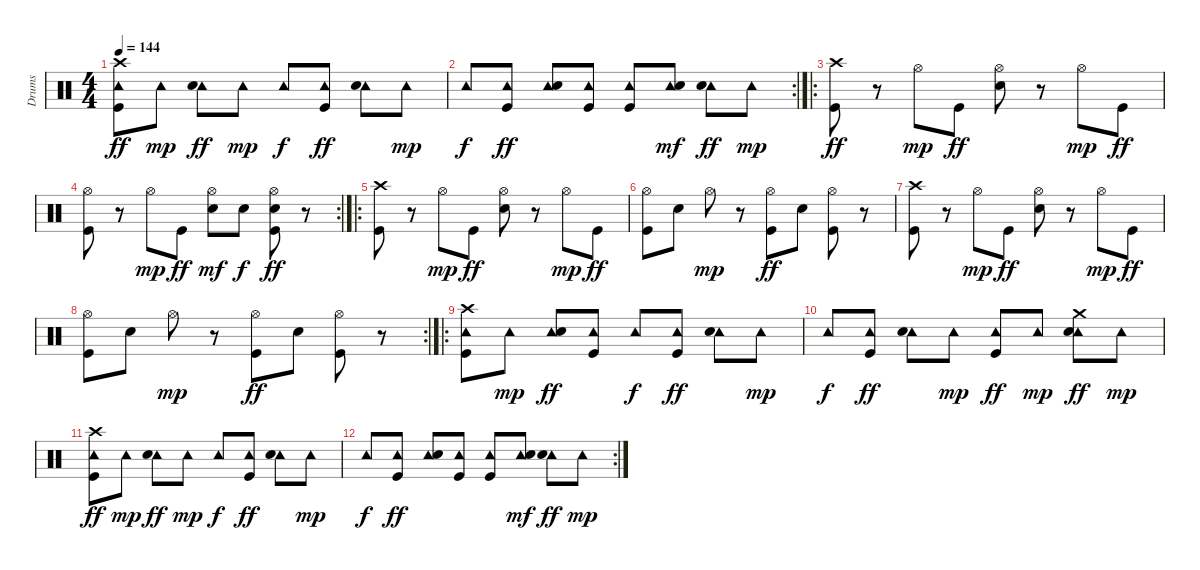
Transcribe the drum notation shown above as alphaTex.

\track ("Drums" "Drums") {instrument percussion}
\staff {score}
\articulation defaults
\ts (4 4)
\tempo 144
\clef neutral
\ks c
("Crash high (hit)" "Tambourine (hit)" "Kick (hit)").8{dy ff} "Tambourine (hit)".8{dy mp} ("Tambourine (hit)" "Snare (hit) 2").8{dy ff} "Tambourine (hit)".8{dy mp} "Tambourine (hit)".8{dy f} ("Tambourine (hit)" "Kick (hit)").8{dy ff} ("Tambourine (hit)" "Snare (hit) 2").8 "Tambourine (hit)".8{dy mp} |
\rc 2 "Tambourine (hit)".8{dy f}
("Tambourine (hit)" "Kick (hit)").8{dy ff} ("Tambourine (hit)" "Snare (hit) 2").8 ("Tambourine (hit)" "Kick (hit)").8 ("Tambourine (hit)" "Kick (hit)").8 ("Tambourine (hit)" "Snare (hit) 2").8{dy mf} ("Tambourine (hit)" "Snare (hit) 2").8{dy ff} "Tambourine (hit)".8{dy mp} |
\ro
("Crash high (hit)" "Kick (hit)").8{dy ff} r.8 "Hi-Hat (open)".8{dy mp} "Kick (hit)".8{dy ff} ("Hi-Hat (open)" "Snare (hit) 2").8 r.8 "Hi-Hat (open)".8{dy mp} "Kick (hit)".8{dy ff} |
\rc 2
("Hi-Hat (open)" "Kick (hit)").8 r.8 "Hi-Hat (open)".8{dy mp} "Kick (hit)".8{dy ff} ("Hi-Hat (open)" "Snare (hit) 2").8{dy mf} "Snare (hit) 2".8{dy f} ("Hi-Hat (open)" "Snare (hit) 2" "Kick (hit)").8{dy ff} r.8 |
\ro
("Crash high (hit)" "Kick (hit)").8 r.8 "Hi-Hat (open)".8{dy mp} "Kick (hit)".8{dy ff} ("Hi-Hat (open)" "Snare (hit) 2").8 r.8 "Hi-Hat (open)".8{dy mp} "Kick (hit)".8{dy ff} |
("Hi-Hat (open)" "Kick (hit)").8 "Snare (hit) 2".8 "Hi-Hat (open)".8{dy mp} r.8 ("Hi-Hat (open)" "Kick (hit)").8{dy ff} "Snare (hit) 2".8 ("Hi-Hat (open)" "Kick (hit)").8 r.8 |
("Crash high (hit)" "Kick (hit)").8 r.8 "Hi-Hat (open)".8{dy mp} "Kick (hit)".8{dy ff} ("Hi-Hat (open)" "Snare (hit) 2").8 r.8 "Hi-Hat (open)".8{dy mp} "Kick (hit)".8{dy ff} |
\rc 2
("Hi-Hat (open)" "Kick (hit)").8 "Snare (hit) 2".8 "Hi-Hat (open)".8{dy mp} r.8 ("Hi-Hat (open)" "Kick (hit)").8{dy ff} "Snare (hit) 2".8 ("Hi-Hat (open)" "Kick (hit)").8 r.8 |
\ro
("Crash high (hit)" "Tambourine (hit)" "Kick (hit)").8 "Tambourine (hit)".8{dy mp} ("Tambourine (hit)" "Snare (hit) 2").8{dy ff} ("Tambourine (hit)" "Kick (hit)").8 "Tambourine (hit)".8{dy f} ("Tambourine (hit)" "Kick (hit)").8{dy ff} ("Tambourine (hit)" "Snare (hit) 2").8 "Tambourine (hit)".8{dy mp} |
"Tambourine (hit)".8{dy f} ("Tambourine (hit)" "Kick (hit)").8{dy ff} ("Tambourine (hit)" "Snare (hit) 2").8 "Tambourine (hit)".8{dy mp} ("Tambourine (hit)" "Kick (hit)").8{dy ff} "Tambourine (hit)".8{dy mp} ("Crash medium (hit)" "Tambourine (hit)" "Snare (hit) 2").8{dy ff} "Tambourine (hit)".8{dy mp} |
("Crash high (hit)" "Tambourine (hit)" "Kick (hit)").8{dy ff} "Tambourine (hit)".8{dy mp} ("Tambourine (hit)" "Snare (hit) 2").8{dy ff} "Tambourine (hit)".8{dy mp} "Tambourine (hit)".8{dy f} ("Tambourine (hit)" "Kick (hit)").8{dy ff} ("Tambourine (hit)" "Snare (hit) 2").8 "Tambourine (hit)".8{dy mp} |
\rc 2 "Tambourine (hit)".8{dy f}
("Tambourine (hit)" "Kick (hit)").8{dy ff} ("Tambourine (hit)" "Snare (hit) 2").8 ("Tambourine (hit)" "Kick (hit)").8 ("Tambourine (hit)" "Kick (hit)").8 ("Tambourine (hit)" "Snare (hit) 2").8{dy mf} ("Tambourine (hit)" "Snare (hit) 2").8{dy ff} "Tambourine (hit)".8{dy mp}
